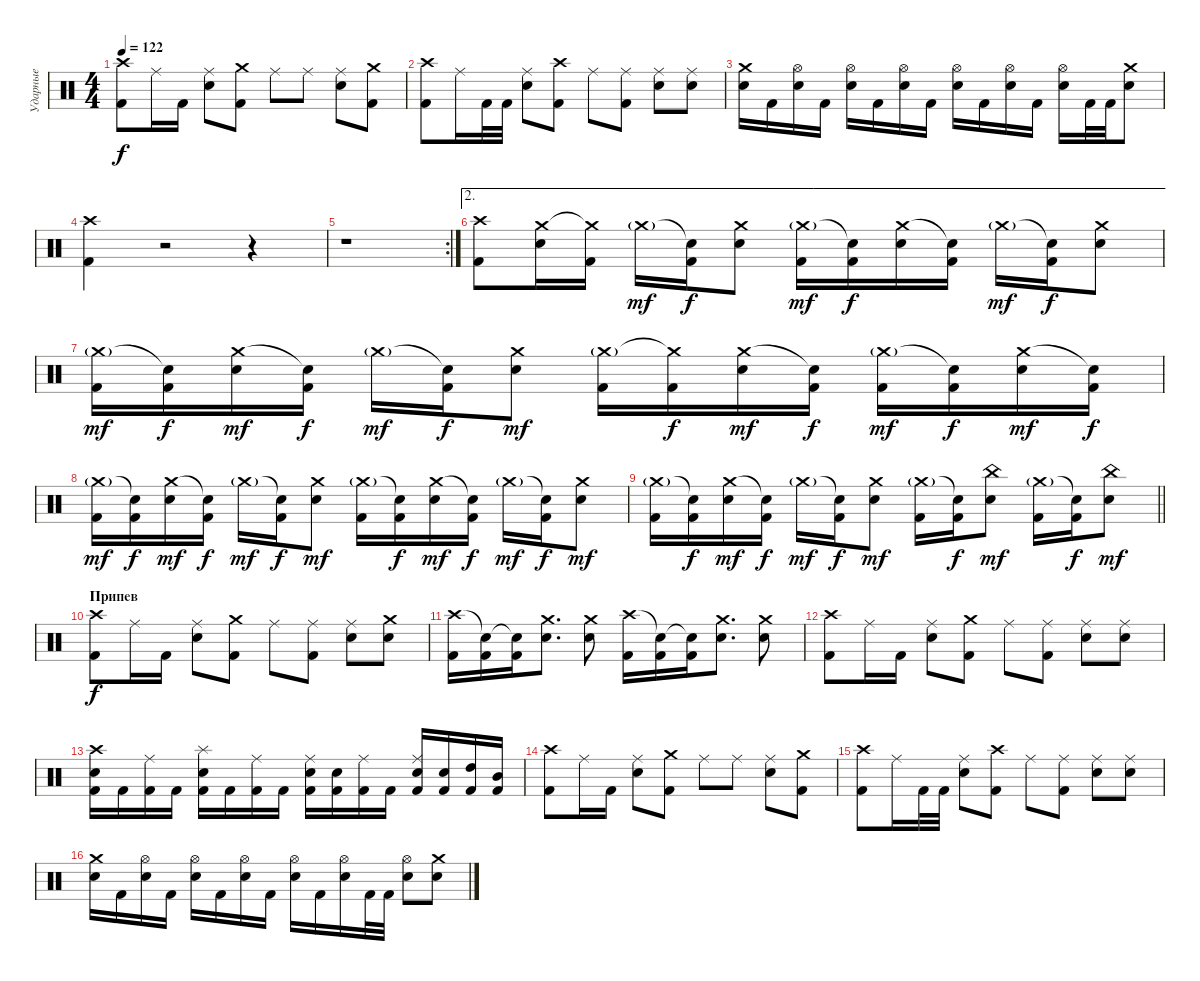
\track ("Ударные" "Ударные") {instrument percussion}
\staff {score}
\articulation defaults
\ts (4 4)
\tempo 122
\clef neutral
\ks c
("Crash high (hit)" "Kick (hit) 2").8{dy f} "Ride (middle)".16 "Kick (hit) 2".16 ("Ride (middle)" "Electric Snare (hit)").8 ("Crash medium (hit)" "Kick (hit) 2").8 "Ride (middle)".8 "Ride (middle)".8 ("Ride (middle)" "Electric Snare (hit)").8 ("Crash medium (hit)" "Kick (hit) 2").8 |
("Crash high (hit)" "Kick (hit) 2").8 "Ride (middle)".16 "Kick (hit) 2".32 "Kick (hit) 2".32 ("Ride (middle)" "Electric Snare (hit)").8 ("Crash high (hit)" "Kick (hit) 2").8 "Ride (middle)".8 ("Ride (middle)" "Kick (hit) 2").8 ("Ride (middle)" "Electric Snare (hit)").8 ("Ride (middle)" "Electric Snare (hit)").8 |
("Crash medium (hit)" "Electric Snare (hit)").16 "Kick (hit) 2".16 ("Hi-Hat (open)" "Electric Snare (hit)").16 "Kick (hit) 2".16 ("Hi-Hat (open)" "Electric Snare (hit)").16 "Kick (hit) 2".16 ("Hi-Hat (open)" "Electric Snare (hit)").16 "Kick (hit) 2".16 ("Hi-Hat (open)" "Electric Snare (hit)").16 "Kick (hit) 2".16 ("Hi-Hat (open)" "Electric Snare (hit)").16 "Kick (hit) 2".16 ("Hi-Hat (open)" "Electric Snare (hit)").16 "Kick (hit) 2".32 "Kick (hit) 2".32 ("Crash medium (hit)" "Electric Snare (hit)").8 |
("Crash high (hit)" "Kick (hit) 2").4 r.2 r.4 |
\rc 2
r.1 |
\ae 2
("Crash high (hit)" "Kick (hit) 2").8 ("Crash medium (hit)" "Electric Snare (hit)").16 ("Crash medium (hit)"{t} "Kick (hit) 2").16 "Crash medium (hit)"{g}.16{dy mf} ("Snare (hit)"{t} "Kick (hit) 2").16{dy f} ("Crash medium (hit)" "Electric Snare (hit)").8 ("Crash medium (hit)"{g} "Kick (hit) 2").16{dy mf} ("Snare (hit)"{t} "Kick (hit) 2").16{dy f} ("Crash medium (hit)" "Electric Snare (hit)").16 ("Snare (hit)"{t} "Kick (hit) 2").16 "Crash medium (hit)"{g}.16{dy mf} ("Snare (hit)"{t} "Kick (hit) 2").16{dy f} ("Crash medium (hit)" "Electric Snare (hit)").8 |
("Crash medium (hit)"{g} "Kick (hit) 2").16{dy mf} ("Snare (hit)"{t} "Kick (hit) 2").16{dy f} ("Crash medium (hit)" "Electric Snare (hit)").16{dy mf} ("Snare (hit)"{t} "Kick (hit) 2").16{dy f} "Crash medium (hit)"{g}.16{dy mf} ("Snare (hit)"{t} "Kick (hit) 2").16{dy f} ("Crash medium (hit)" "Electric Snare (hit)").8{dy mf} ("Crash medium (hit)"{g} "Kick (hit) 2").16 ("Crash medium (hit)"{t} "Kick (hit) 2").16{dy f} ("Crash medium (hit)" "Electric Snare (hit)").16{dy mf} ("Snare (hit)"{t} "Kick (hit) 2").16{dy f} ("Crash medium (hit)"{g} "Kick (hit) 2").16{dy mf} ("Snare (hit)"{t} "Kick (hit) 2").16{dy f} ("Crash medium (hit)" "Electric Snare (hit)").16{dy mf} ("Snare (hit)"{t} "Kick (hit) 2").16{dy f} |
("Crash medium (hit)"{g} "Kick (hit) 2").16{dy mf} ("Snare (hit)"{t} "Kick (hit) 2").16{dy f} ("Crash medium (hit)" "Electric Snare (hit)").16{dy mf} ("Snare (hit)"{t} "Kick (hit) 2").16{dy f} "Crash medium (hit)"{g}.16{dy mf} ("Snare (hit)"{t} "Kick (hit) 2").16{dy f} ("Crash medium (hit)" "Electric Snare (hit)").8{dy mf} ("Crash medium (hit)"{g} "Kick (hit) 2").16 ("Snare (hit)"{t} "Kick (hit) 2").16{dy f} ("Crash medium (hit)" "Electric Snare (hit)").16{dy mf} ("Snare (hit)"{t} "Kick (hit) 2").16{dy f} "Crash medium (hit)"{g}.16{dy mf} ("Snare (hit)"{t} "Kick (hit) 2").16{dy f} ("Crash medium (hit)" "Electric Snare (hit)").8{dy mf} |
\barLineRight lightlight
("Crash medium (hit)"{g} "Kick (hit) 2").16 ("Snare (hit)"{t} "Kick (hit) 2").16{dy f} ("Crash medium (hit)" "Electric Snare (hit)").16{dy mf} ("Snare (hit)"{t} "Kick (hit) 2").16{dy f} "Crash medium (hit)"{g}.16{dy mf} ("Snare (hit)"{t} "Kick (hit) 2").16{dy f} ("Crash medium (hit)" "Electric Snare (hit)").8{dy mf} ("Crash medium (hit)"{g} "Kick (hit) 2").16 ("Snare (hit)"{t} "Kick (hit) 2").16{dy f} ("China (hit)" "Electric Snare (hit)").8{dy mf} ("Crash medium (hit)"{g} "Kick (hit) 2").16 ("Snare (hit)"{t} "Kick (hit) 2").16{dy f} ("China (hit)" "Electric Snare (hit)").8{dy mf} |
\section ("" "Припев")
("Crash high (hit)" "Kick (hit) 2").8{dy f} "Ride (middle)".16 "Kick (hit) 2".16 ("Ride (middle)" "Electric Snare (hit)").8 ("Crash medium (hit)" "Kick (hit) 2").8 "Ride (middle)".8 ("Ride (middle)" "Kick (hit) 2").8 ("Ride (middle)" "Electric Snare (hit)").8 ("Crash medium (hit)" "Electric Snare (hit)").8 |
("Crash high (hit)" "Kick (hit) 2").16 ("Snare (hit)"{t} "Kick (hit) 2").16 ("Snare (hit)"{t} "Kick (hit) 2").16 ("Crash medium (hit)" "Electric Snare (hit)").8{d} ("Crash medium (hit)" "Electric Snare (hit)").8 ("Crash high (hit)" "Kick (hit) 2").16 ("Snare (hit)"{t} "Kick (hit) 2").16 ("Snare (hit)"{t} "Kick (hit) 2").16 ("Crash medium (hit)" "Electric Snare (hit)").8{d} ("Crash medium (hit)" "Electric Snare (hit)").8 |
("Crash high (hit)" "Kick (hit) 2").8 "Ride (middle)".16 "Kick (hit) 2".16 ("Ride (middle)" "Electric Snare (hit)").8 ("Crash medium (hit)" "Kick (hit) 2").8 "Ride (middle)".8 ("Ride (middle)" "Kick (hit) 2").8 ("Ride (middle)" "Electric Snare (hit)").8 ("Ride (middle)" "Electric Snare (hit)").8 |
("Crash high (hit)" "Electric Snare (hit)" "Kick (hit) 2").16 "Kick (hit) 2".16 ("Ride (middle)" "Kick (hit) 2").16 "Kick (hit) 2".16 ("Splash (hit)" "Electric Snare (hit)" "Kick (hit) 2").16 "Kick (hit) 2".16 ("Ride (middle)" "Kick (hit) 2").16 "Kick (hit) 2".16 ("Ride (middle)" "Electric Snare (hit)" "Kick (hit) 2").16 ("Electric Snare (hit)" "Kick (hit) 2").16 ("Ride (middle)" "Kick (hit) 2").16 "Kick (hit) 2".16 ("Ride (middle)" "Electric Snare (hit)" "Kick (hit) 2").16 ("Electric Snare (hit)" "Kick (hit) 2").16 ("High Tom (hit)" "Kick (hit) 2").16 ("Mid Tom (hit)" "Kick (hit) 2").16 |
("Crash high (hit)" "Kick (hit) 2").8 "Ride (middle)".16 "Kick (hit) 2".16 ("Ride (middle)" "Electric Snare (hit)").8 ("Crash medium (hit)" "Kick (hit) 2").8 "Ride (middle)".8 "Ride (middle)".8 ("Ride (middle)" "Electric Snare (hit)").8 ("Crash medium (hit)" "Kick (hit) 2").8 |
("Crash high (hit)" "Kick (hit) 2").8 "Ride (middle)".16 "Kick (hit) 2".32 "Kick (hit) 2".32 ("Ride (middle)" "Electric Snare (hit)").8 ("Crash high (hit)" "Kick (hit) 2").8 "Ride (middle)".8 ("Ride (middle)" "Kick (hit) 2").8 ("Ride (middle)" "Electric Snare (hit)").8 ("Ride (middle)" "Electric Snare (hit)").8 |
("Crash medium (hit)" "Electric Snare (hit)").16 "Kick (hit) 2".16 ("Hi-Hat (open)" "Electric Snare (hit)").16 "Kick (hit) 2".16 ("Hi-Hat (open)" "Electric Snare (hit)").16 "Kick (hit) 2".16 ("Hi-Hat (open)" "Electric Snare (hit)").16 "Kick (hit) 2".16 ("Hi-Hat (open)" "Electric Snare (hit)").16 "Kick (hit) 2".16 ("Hi-Hat (open)" "Electric Snare (hit)").16 "Kick (hit) 2".32 "Kick (hit) 2".32 ("Hi-Hat (open)" "Electric Snare (hit)").8 ("Crash medium (hit)" "Electric Snare (hit)").8
